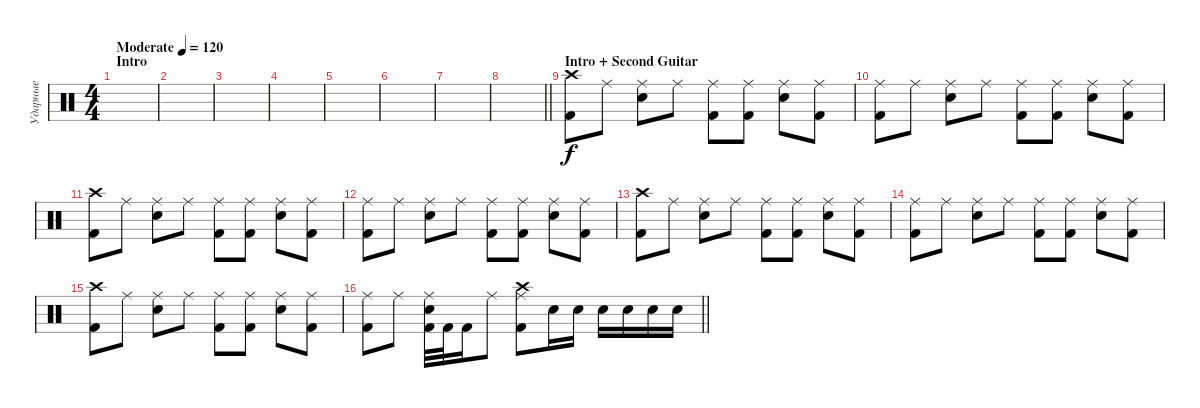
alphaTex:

\track ("Ударные" "Ударные") {instrument percussion}
\staff {score}
\articulation defaults
\ts (4 4)
\section ("" "Intro")
\tempo (120 "Moderate")
\clef neutral
\ks c
|
|
|
|
|
|
|
\barLineRight lightlight
|
\section ("" "Intro + Second Guitar")
("Crash high (hit)" "Kick (hit) 2").8 "Ride (middle)".8 ("Ride (middle)" "Electric Snare (hit)").8 "Ride (middle)".8 ("Ride (middle)" "Kick (hit) 2").8 ("Ride (middle)" "Kick (hit) 2").8 ("Ride (middle)" "Electric Snare (hit)").8 ("Ride (middle)" "Kick (hit) 2").8 |
("Ride (middle)" "Kick (hit) 2").8 "Ride (middle)".8 ("Ride (middle)" "Electric Snare (hit)").8 "Ride (middle)".8 ("Ride (middle)" "Kick (hit) 2").8 ("Ride (middle)" "Kick (hit) 2").8 ("Ride (middle)" "Electric Snare (hit)").8 ("Ride (middle)" "Kick (hit) 2").8 |
("Crash high (hit)" "Kick (hit) 2").8 "Ride (middle)".8 ("Ride (middle)" "Electric Snare (hit)").8 "Ride (middle)".8 ("Ride (middle)" "Kick (hit) 2").8 ("Ride (middle)" "Kick (hit) 2").8 ("Ride (middle)" "Electric Snare (hit)").8 ("Ride (middle)" "Kick (hit) 2").8 |
("Ride (middle)" "Kick (hit) 2").8 "Ride (middle)".8 ("Ride (middle)" "Electric Snare (hit)").8 "Ride (middle)".8 ("Ride (middle)" "Kick (hit) 2").8 ("Ride (middle)" "Kick (hit) 2").8 ("Ride (middle)" "Electric Snare (hit)").8 ("Ride (middle)" "Kick (hit) 2").8 |
("Crash high (hit)" "Kick (hit) 2").8 "Ride (middle)".8 ("Ride (middle)" "Electric Snare (hit)").8 "Ride (middle)".8 ("Ride (middle)" "Kick (hit) 2").8 ("Ride (middle)" "Kick (hit) 2").8 ("Ride (middle)" "Electric Snare (hit)").8 ("Ride (middle)" "Kick (hit) 2").8 |
("Ride (middle)" "Kick (hit) 2").8 "Ride (middle)".8 ("Ride (middle)" "Electric Snare (hit)").8 "Ride (middle)".8 ("Ride (middle)" "Kick (hit) 2").8 ("Ride (middle)" "Kick (hit) 2").8 ("Ride (middle)" "Electric Snare (hit)").8 ("Ride (middle)" "Kick (hit) 2").8 |
("Crash high (hit)" "Kick (hit) 2").8 "Ride (middle)".8 ("Ride (middle)" "Electric Snare (hit)").8 "Ride (middle)".8 ("Ride (middle)" "Kick (hit) 2").8 ("Ride (middle)" "Kick (hit) 2").8 ("Ride (middle)" "Electric Snare (hit)").8 ("Ride (middle)" "Kick (hit) 2").8 |
\barLineRight lightlight
("Ride (middle)" "Kick (hit) 2").8 "Ride (middle)".8 ("Ride (middle)" "Electric Snare (hit)" "Kick (hit) 2").32 "Kick (hit) 2".32 "Kick (hit) 2".16 "Ride (middle)".8 ("Crash high (hit)" "Ride (middle)" "Kick (hit) 2").8 "Electric Snare (hit)".16 "Electric Snare (hit)".16 "Electric Snare (hit)".16 "Electric Snare (hit)".16 "Electric Snare (hit)".16 "Electric Snare (hit)".16
